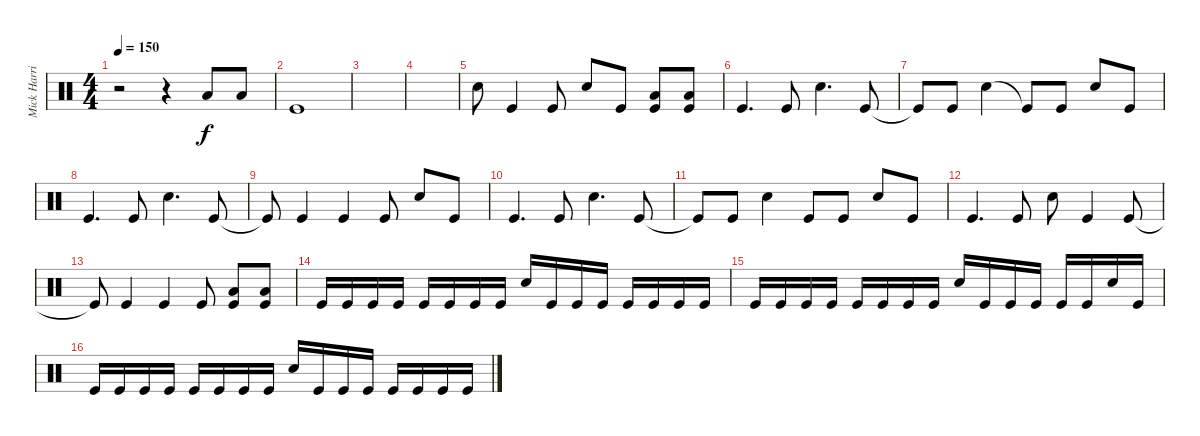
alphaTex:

\track ("Mick Harris" "Mick Harri") {instrument percussion}
\staff {score}
\articulation defaults
\ts (4 4)
\tempo 150
\clef neutral
\ks c
r.2{dy f} r.4 "Low Tom (hit)".8 "Low Tom (hit)".8 |
"Kick (hit)".1 |
|
|
"Snare (hit) 2".8 "Kick (hit)".4 "Kick (hit)".8 "Snare (hit) 2".8 "Kick (hit)".8 ("Low Floor Tom (hit)" "Kick (hit)").8 ("Low Floor Tom (hit)" "Kick (hit)").8 |
"Kick (hit)".4{d} "Kick (hit)".8 "Snare (hit) 2".4{d} "Kick (hit)".8 |
"Kick (hit)"{t}.8 "Kick (hit)".8 "Snare (hit) 2".4 "Kick (hit)"{t}.8 "Kick (hit)".8 "Snare (hit) 2".8 "Kick (hit)".8 |
"Kick (hit)".4{d} "Kick (hit)".8 "Snare (hit) 2".4{d} "Kick (hit)".8 |
"Kick (hit)"{t}.8 "Kick (hit)".4 "Kick (hit)".4 "Kick (hit)".8 "Snare (hit) 2".8 "Kick (hit)".8 |
"Kick (hit)".4{d} "Kick (hit)".8 "Snare (hit) 2".4{d} "Kick (hit)".8 |
"Kick (hit)"{t}.8 "Kick (hit)".8 "Snare (hit) 2".4 "Kick (hit)".8 "Kick (hit)".8 "Snare (hit) 2".8 "Kick (hit)".8 |
"Kick (hit)".4{d} "Kick (hit)".8 "Snare (hit) 2".8 "Kick (hit)".4 "Kick (hit)".8 |
"Kick (hit)"{t}.8 "Kick (hit)".4 "Kick (hit)".4 "Kick (hit)".8 ("Low Floor Tom (hit)" "Kick (hit)").8 ("Low Floor Tom (hit)" "Kick (hit)").8 |
"Kick (hit)".16 "Kick (hit)".16 "Kick (hit)".16 "Kick (hit)".16 "Kick (hit)".16 "Kick (hit)".16 "Kick (hit)".16 "Kick (hit)".16 "Snare (hit) 2".16 "Kick (hit)".16 "Kick (hit)".16 "Kick (hit)".16 "Kick (hit)".16 "Kick (hit)".16 "Kick (hit)".16 "Kick (hit)".16 |
"Kick (hit)".16 "Kick (hit)".16 "Kick (hit)".16 "Kick (hit)".16 "Kick (hit)".16 "Kick (hit)".16 "Kick (hit)".16 "Kick (hit)".16 "Snare (hit) 2".16 "Kick (hit)".16 "Kick (hit)".16 "Kick (hit)".16 "Kick (hit)".16 "Kick (hit)".16 "Snare (hit) 2".16 "Kick (hit)".16 |
"Kick (hit)".16 "Kick (hit)".16 "Kick (hit)".16 "Kick (hit)".16 "Kick (hit)".16 "Kick (hit)".16 "Kick (hit)".16 "Kick (hit)".16 "Snare (hit) 2".16 "Kick (hit)".16 "Kick (hit)".16 "Kick (hit)".16 "Kick (hit)".16 "Kick (hit)".16 "Kick (hit)".16 "Kick (hit)".16
